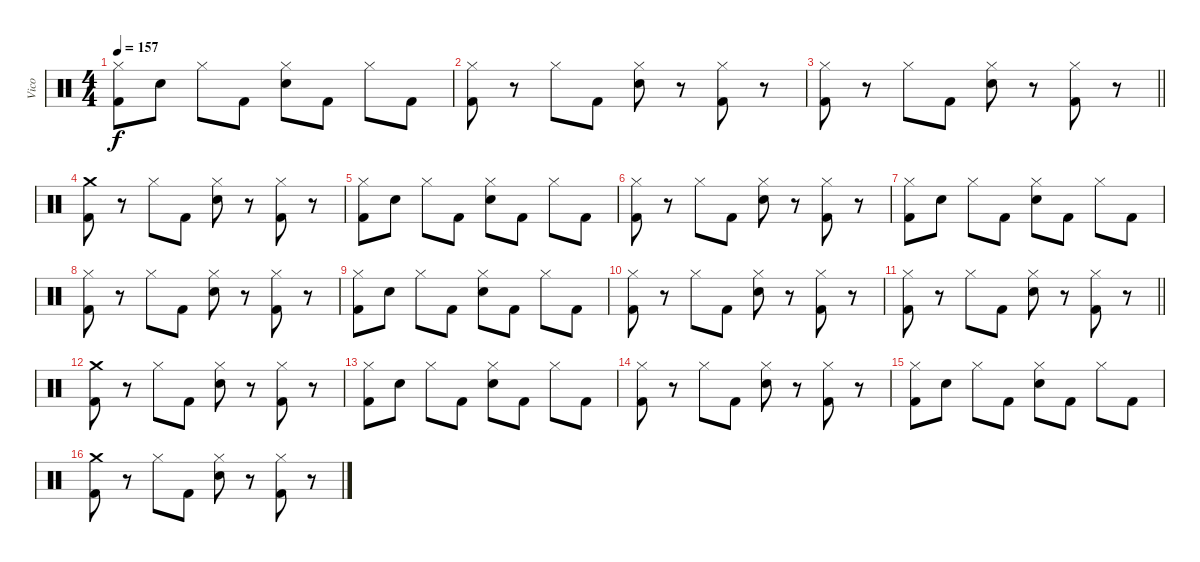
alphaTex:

\track ("Vico" "Vico") {instrument percussion}
\staff {score}
\articulation defaults
\ts (4 4)
\tempo 157
\clef neutral
\ks c
("Hi-Hat (closed)" "Kick (hit) 2").8{dy f} "Electric Snare (hit)".8 "Hi-Hat (closed)".8 "Kick (hit) 2".8 ("Hi-Hat (closed)" "Electric Snare (hit)").8 "Kick (hit) 2".8 "Hi-Hat (closed)".8 "Kick (hit) 2".8 |
("Hi-Hat (closed)" "Kick (hit) 2").8 r.8 "Hi-Hat (closed)".8 "Kick (hit) 2".8 ("Hi-Hat (closed)" "Electric Snare (hit)").8 r.8 ("Hi-Hat (closed)" "Kick (hit) 2").8 r.8 |
\barLineRight lightlight
("Hi-Hat (closed)" "Kick (hit) 2").8 r.8 "Hi-Hat (closed)".8 "Kick (hit) 2".8 ("Hi-Hat (closed)" "Electric Snare (hit)").8 r.8 ("Hi-Hat (closed)" "Kick (hit) 2").8 r.8 |
("Crash medium (hit)" "Kick (hit) 2").8 r.8 "Hi-Hat (closed)".8 "Kick (hit) 2".8 ("Hi-Hat (closed)" "Electric Snare (hit)").8 r.8 ("Hi-Hat (closed)" "Kick (hit) 2").8 r.8 |
("Hi-Hat (closed)" "Kick (hit) 2").8 "Electric Snare (hit)".8 "Hi-Hat (closed)".8 "Kick (hit) 2".8 ("Hi-Hat (closed)" "Electric Snare (hit)").8 "Kick (hit) 2".8 "Hi-Hat (closed)".8 "Kick (hit) 2".8 |
("Hi-Hat (closed)" "Kick (hit) 2").8 r.8 "Hi-Hat (closed)".8 "Kick (hit) 2".8 ("Hi-Hat (closed)" "Electric Snare (hit)").8 r.8 ("Hi-Hat (closed)" "Kick (hit) 2").8 r.8 |
("Hi-Hat (closed)" "Kick (hit) 2").8 "Electric Snare (hit)".8 "Hi-Hat (closed)".8 "Kick (hit) 2".8 ("Hi-Hat (closed)" "Electric Snare (hit)").8 "Kick (hit) 2".8 "Hi-Hat (closed)".8 "Kick (hit) 2".8 |
("Hi-Hat (closed)" "Kick (hit) 2").8 r.8 "Hi-Hat (closed)".8 "Kick (hit) 2".8 ("Hi-Hat (closed)" "Electric Snare (hit)").8 r.8 ("Hi-Hat (closed)" "Kick (hit) 2").8 r.8 |
("Hi-Hat (closed)" "Kick (hit) 2").8 "Electric Snare (hit)".8 "Hi-Hat (closed)".8 "Kick (hit) 2".8 ("Hi-Hat (closed)" "Electric Snare (hit)").8 "Kick (hit) 2".8 "Hi-Hat (closed)".8 "Kick (hit) 2".8 |
("Hi-Hat (closed)" "Kick (hit) 2").8 r.8 "Hi-Hat (closed)".8 "Kick (hit) 2".8 ("Hi-Hat (closed)" "Electric Snare (hit)").8 r.8 ("Hi-Hat (closed)" "Kick (hit) 2").8 r.8 |
\barLineRight lightlight
("Hi-Hat (closed)" "Kick (hit) 2").8 r.8 "Hi-Hat (closed)".8 "Kick (hit) 2".8 ("Hi-Hat (closed)" "Electric Snare (hit)").8 r.8 ("Hi-Hat (closed)" "Kick (hit) 2").8 r.8 |
("Crash medium (hit)" "Kick (hit) 2").8 r.8 "Hi-Hat (closed)".8 "Kick (hit) 2".8 ("Hi-Hat (closed)" "Electric Snare (hit)").8 r.8 ("Hi-Hat (closed)" "Kick (hit) 2").8 r.8 |
("Hi-Hat (closed)" "Kick (hit) 2").8 "Electric Snare (hit)".8 "Hi-Hat (closed)".8 "Kick (hit) 2".8 ("Hi-Hat (closed)" "Electric Snare (hit)").8 "Kick (hit) 2".8 "Hi-Hat (closed)".8 "Kick (hit) 2".8 |
("Hi-Hat (closed)" "Kick (hit) 2").8 r.8 "Hi-Hat (closed)".8 "Kick (hit) 2".8 ("Hi-Hat (closed)" "Electric Snare (hit)").8 r.8 ("Hi-Hat (closed)" "Kick (hit) 2").8 r.8 |
("Hi-Hat (closed)" "Kick (hit) 2").8 "Electric Snare (hit)".8 "Hi-Hat (closed)".8 "Kick (hit) 2".8 ("Hi-Hat (closed)" "Electric Snare (hit)").8 "Kick (hit) 2".8 "Hi-Hat (closed)".8 "Kick (hit) 2".8 |
("Crash medium (hit)" "Kick (hit) 2").8 r.8 "Hi-Hat (closed)".8 "Kick (hit) 2".8 ("Hi-Hat (closed)" "Electric Snare (hit)").8 r.8 ("Hi-Hat (closed)" "Kick (hit) 2").8 r.8
